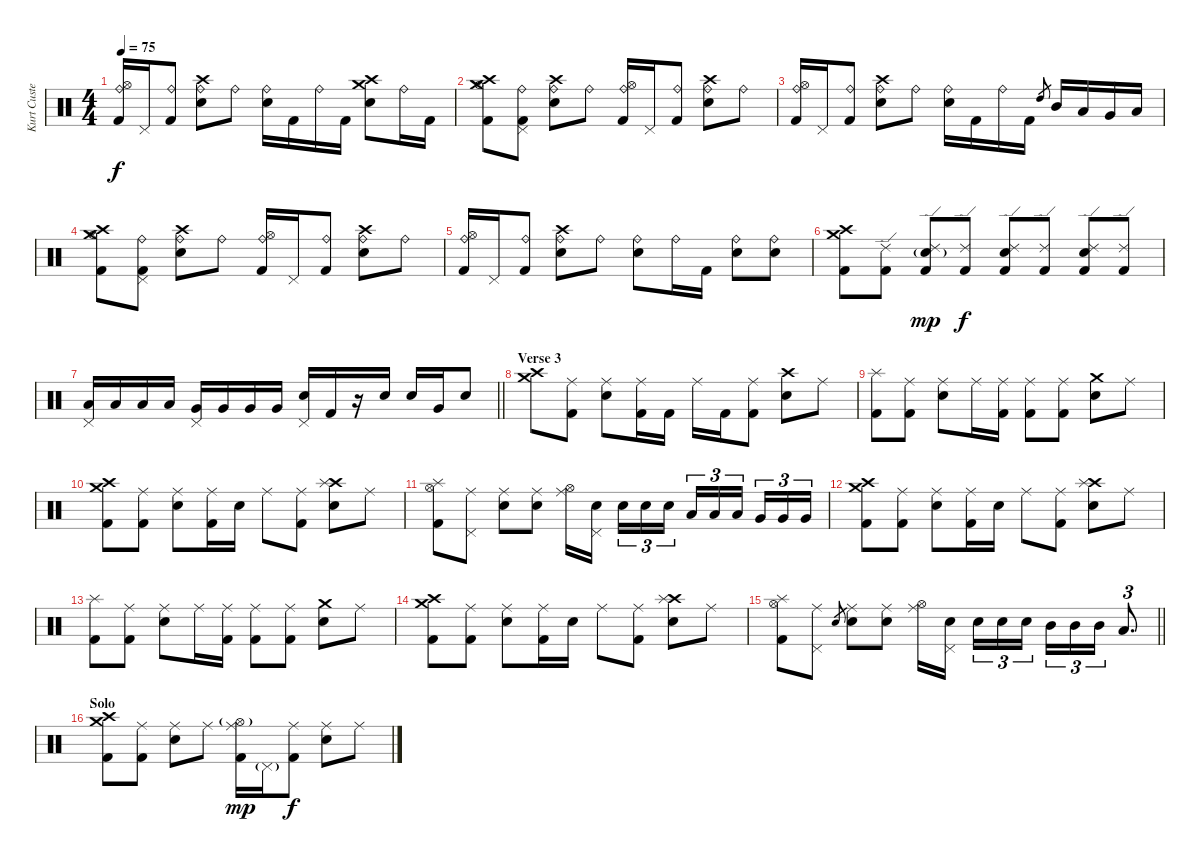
\track ("Kurt Custer - Drums and Percussion" "Kurt Custe") {instrument percussion}
\staff
\articulation defaults
\ts (4 4)
\tempo 75
\clef neutral
\ks c
("Ride (bell)" "Hi-Hat (open)" "Kick (hit) 2").16{dy f} "Pedal Hi-Hat (hit)".16 ("Ride (bell)" "Kick (hit) 2").8 ("Ride (bell)" "Crash high (hit)" "Snare (hit) 2").8 "Ride (bell)".8 ("Ride (bell)" "Snare (hit) 2").16 "Kick (hit) 2".16 "Ride (bell)".16 "Kick (hit) 2".16 ("Crash medium (hit)" "Crash high (hit)" "Snare (hit) 2").8 "Ride (bell)".16 "Kick (hit) 2".16 |
("Crash medium (hit)" "Crash high (hit)" "Hi-Hat (open)" "Kick (hit) 2").8 ("Ride (bell)" "Pedal Hi-Hat (hit)" "Kick (hit) 2").8 ("Ride (bell)" "Crash high (hit)" "Snare (hit) 2").8 "Ride (bell)".8 ("Ride (bell)" "Hi-Hat (open)" "Kick (hit) 2").16 "Pedal Hi-Hat (hit)".16 ("Ride (bell)" "Kick (hit) 2").8 ("Ride (bell)" "Crash high (hit)" "Snare (hit) 2").8 "Ride (bell)".8 |
("Ride (bell)" "Hi-Hat (open)" "Kick (hit) 2").16 "Pedal Hi-Hat (hit)".16 ("Ride (bell)" "Kick (hit) 2").8 ("Ride (bell)" "Crash high (hit)" "Snare (hit) 2").8 "Ride (bell)".8 ("Ride (bell)" "Snare (hit) 2").16 "Kick (hit) 2".16 "Ride (bell)".16 "Kick (hit) 2".16 "High Tom (hit)".8{gr} "Mid Tom (hit)".16 "Low Tom (hit)".16 "Very Low Tom (hit)".16 "Low Floor Tom (hit)".16 |
("Crash medium (hit)" "Crash high (hit)" "Hi-Hat (open)" "Kick (hit) 2").8 ("Ride (bell)" "Pedal Hi-Hat (hit)" "Kick (hit) 2").8 ("Ride (bell)" "Crash high (hit)" "Snare (hit) 2").8 "Ride (bell)".8 ("Ride (bell)" "Hi-Hat (open)" "Kick (hit) 2").16 "Pedal Hi-Hat (hit)".16 ("Ride (bell)" "Kick (hit) 2").8 ("Ride (bell)" "Crash high (hit)" "Snare (hit) 2").8 "Ride (bell)".8 |
("Ride (bell)" "Hi-Hat (open)" "Kick (hit) 2").16 "Pedal Hi-Hat (hit)".16 ("Ride (bell)" "Kick (hit) 2").8 ("Ride (bell)" "Crash high (hit)" "Snare (hit) 2").8 "Ride (bell)".8 ("Ride (bell)" "Snare (hit) 2").8 "Ride (bell)".16 "Kick (hit) 2".16 ("Ride (bell)" "Snare (hit) 2").8 ("Ride (bell)" "Snare (hit) 2").8 |
("Crash medium (hit)" "Crash high (hit)" "Kick (hit) 2").8 ("Ride (edge) 2" "Kick (hit) 2").8 ("Ride (edge) 2" "Snare (hit) 2"{g} "Kick (hit) 2").8{dy mp} ("Ride (edge) 2" "Kick (hit) 2").8{dy f} ("Ride (edge) 2" "Snare (hit) 2" "Kick (hit) 2").8 ("Ride (edge) 2" "Kick (hit) 2").8 ("Ride (edge) 2" "Snare (hit) 2" "Kick (hit) 2").8 ("Ride (edge) 2" "Kick (hit) 2").8 |
\barLineRight lightlight
("Pedal Hi-Hat (hit)" "Low Tom (hit)").16 "Low Tom (hit)".16 "Low Tom (hit)".16 "Low Tom (hit)".16 ("Pedal Hi-Hat (hit)" "Very Low Tom (hit)").16 "Very Low Tom (hit)".16 "Very Low Tom (hit)".16 "Very Low Tom (hit)".16 ("Pedal Hi-Hat (hit)" "Snare (hit) 2").16 "Kick (hit) 2".16 r.16 "Snare (hit) 2".16 "Snare (hit) 2".16 "Very Low Tom (hit)".16 "Snare (hit) 2".8 |
\section ("" "Verse 3")
("Crash medium (hit)" "Crash high (hit)").8 ("Ride (middle)" "Kick (hit) 2").8 ("Ride (middle)" "Snare (hit) 2").8 ("Ride (middle)" "Kick (hit) 2").16 "Kick (hit) 2".16 "Ride (middle)".16 "Kick (hit) 2".16 ("Ride (middle)" "Kick (hit) 2").8 ("Crash high (hit)" "Snare (hit) 2").8 "Ride (middle)".8 |
("Splash (hit)" "Kick (hit) 2").8 ("Ride (middle)" "Kick (hit) 2").8 ("Ride (middle)" "Snare (hit) 2").8 "Ride (middle)".16 ("Ride (middle)" "Kick (hit) 2").16 ("Ride (middle)" "Kick (hit) 2").8 ("Ride (middle)" "Kick (hit) 2").8 ("Crash medium (hit)" "Snare (hit) 2").8 "Ride (middle)".8 |
("Crash medium (hit)" "Crash high (hit)" "Kick (hit) 2").8 ("Ride (middle)" "Kick (hit) 2").8 ("Ride (middle)" "Snare (hit) 2").8 ("Ride (middle)" "Kick (hit) 2").16 "Snare (hit) 2".16 "Ride (middle)".8 ("Ride (middle)" "Kick (hit) 2").8 ("Crash high (hit)" "Splash (hit)" "Snare (hit) 2").8 "Ride (middle)".8 |
("Splash (hit)" "Hi-Hat (open)" "Kick (hit) 2").8 ("Ride (middle)" "Pedal Hi-Hat (hit)").8 ("Ride (middle)" "Snare (hit) 2").8 ("Ride (middle)" "Snare (hit) 2").8 ("Ride (middle)" "Hi-Hat (open)").16 ("Snare (hit) 2" "Pedal Hi-Hat (hit)").16{beam splitsecondary} "Snare (hit) 2".16{tu (3 2)} "Snare (hit) 2".16{tu (3 2)} "Snare (hit) 2".16{tu (3 2)} "Low Tom (hit)".16{tu (3 2)} "Low Tom (hit)".16{tu (3 2)} "Low Tom (hit)".16{tu (3 2) beam splitsecondary} "Very Low Tom (hit)".16{tu (3 2)} "Very Low Tom (hit)".16{tu (3 2)} "Very Low Tom (hit)".16{tu (3 2)} |
("Crash medium (hit)" "Crash high (hit)" "Kick (hit) 2").8 ("Ride (middle)" "Kick (hit) 2").8 ("Ride (middle)" "Snare (hit) 2").8 ("Ride (middle)" "Kick (hit) 2").16 "Snare (hit) 2".16 "Ride (middle)".8 ("Ride (middle)" "Kick (hit) 2").8 ("Crash high (hit)" "Splash (hit)" "Snare (hit) 2").8 "Ride (middle)".8 |
("Splash (hit)" "Kick (hit) 2").8 ("Ride (middle)" "Kick (hit) 2").8 ("Ride (middle)" "Snare (hit) 2").8 "Ride (middle)".16 ("Ride (middle)" "Kick (hit) 2").16 ("Ride (middle)" "Kick (hit) 2").8 ("Ride (middle)" "Kick (hit) 2").8 ("Crash medium (hit)" "Snare (hit) 2").8 "Ride (middle)".8 |
("Crash medium (hit)" "Crash high (hit)" "Kick (hit) 2").8 ("Ride (middle)" "Kick (hit) 2").8 ("Ride (middle)" "Snare (hit) 2").8 ("Ride (middle)" "Kick (hit) 2").16 "Snare (hit) 2".16 "Ride (middle)".8 ("Ride (middle)" "Kick (hit) 2").8 ("Crash high (hit)" "Splash (hit)" "Snare (hit) 2").8 "Ride (middle)".8 |
\barLineRight lightlight
("Splash (hit)" "Hi-Hat (open)" "Kick (hit) 2").8 ("Ride (middle)" "Pedal Hi-Hat (hit)").8 "Snare (hit) 2".8{gr} ("Ride (middle)" "Snare (hit) 2").8 ("Ride (middle)" "Snare (hit) 2").8 ("Ride (middle)" "Hi-Hat (open)").16 ("Snare (hit) 2" "Pedal Hi-Hat (hit)").16{beam splitsecondary} "Snare (hit) 2".16{tu (3 2)} "Snare (hit) 2".16{tu (3 2)} "Snare (hit) 2".16{tu (3 2)} "Mid Tom (hit)".16{tu (3 2)} "Mid Tom (hit)".16{tu (3 2)} "Mid Tom (hit)".16{tu (3 2)} "Low Tom (hit)".8{d tu (3 2)} |
\section ("" "Solo")
("Crash medium (hit)" "Crash high (hit)" "Kick (hit) 2").8 ("Ride (middle)" "Kick (hit) 2").8 ("Ride (middle)" "Snare (hit) 2").8 "Ride (middle)".8 ("Ride (middle)" "Hi-Hat (open)"{g} "Kick (hit) 2").16{dy mp} "Pedal Hi-Hat (hit)"{g}.16 ("Ride (middle)" "Kick (hit) 2").8{dy f} ("Ride (middle)" "Snare (hit) 2").8 "Ride (middle)".8
